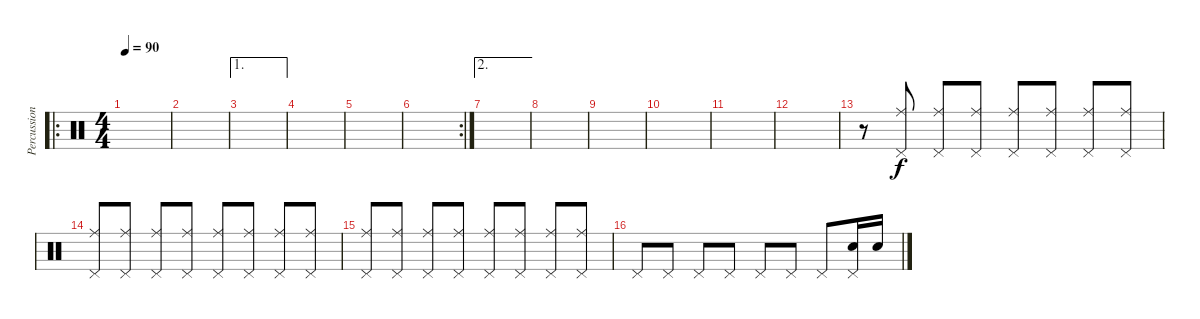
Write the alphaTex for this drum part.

\track ("Percussions" "Percussion") {instrument percussion}
\staff {score}
\articulation defaults
\ro
\ts (4 4)
\tempo 90
\clef neutral
\ks c
|
|
\ae 1
|
|
|
\rc 2
|
\ae 2
|
|
|
|
|
|
r.8 ("Pedal Hi-Hat (hit)" "Ride (middle)").8 ("Pedal Hi-Hat (hit)" "Ride (middle)").8 ("Pedal Hi-Hat (hit)" "Ride (middle)").8 ("Pedal Hi-Hat (hit)" "Ride (middle)").8 ("Pedal Hi-Hat (hit)" "Ride (middle)").8 ("Pedal Hi-Hat (hit)" "Ride (middle)").8 ("Pedal Hi-Hat (hit)" "Ride (middle)").8 |
("Pedal Hi-Hat (hit)" "Ride (middle)").8 ("Pedal Hi-Hat (hit)" "Ride (middle)").8 ("Pedal Hi-Hat (hit)" "Ride (middle)").8 ("Pedal Hi-Hat (hit)" "Ride (middle)").8 ("Pedal Hi-Hat (hit)" "Ride (middle)").8 ("Pedal Hi-Hat (hit)" "Ride (middle)").8 ("Pedal Hi-Hat (hit)" "Ride (middle)").8 ("Pedal Hi-Hat (hit)" "Ride (middle)").8 |
("Pedal Hi-Hat (hit)" "Ride (middle)").8 ("Pedal Hi-Hat (hit)" "Ride (middle)").8 ("Pedal Hi-Hat (hit)" "Ride (middle)").8 ("Pedal Hi-Hat (hit)" "Ride (middle)").8 ("Pedal Hi-Hat (hit)" "Ride (middle)").8 ("Pedal Hi-Hat (hit)" "Ride (middle)").8 ("Pedal Hi-Hat (hit)" "Ride (middle)").8 ("Pedal Hi-Hat (hit)" "Ride (middle)").8 |
"Pedal Hi-Hat (hit)".8 "Pedal Hi-Hat (hit)".8 "Pedal Hi-Hat (hit)".8 "Pedal Hi-Hat (hit)".8 "Pedal Hi-Hat (hit)".8 "Pedal Hi-Hat (hit)".8 "Pedal Hi-Hat (hit)".8 ("Pedal Hi-Hat (hit)" "Electric Snare (hit)").16 "Electric Snare (hit)".16
